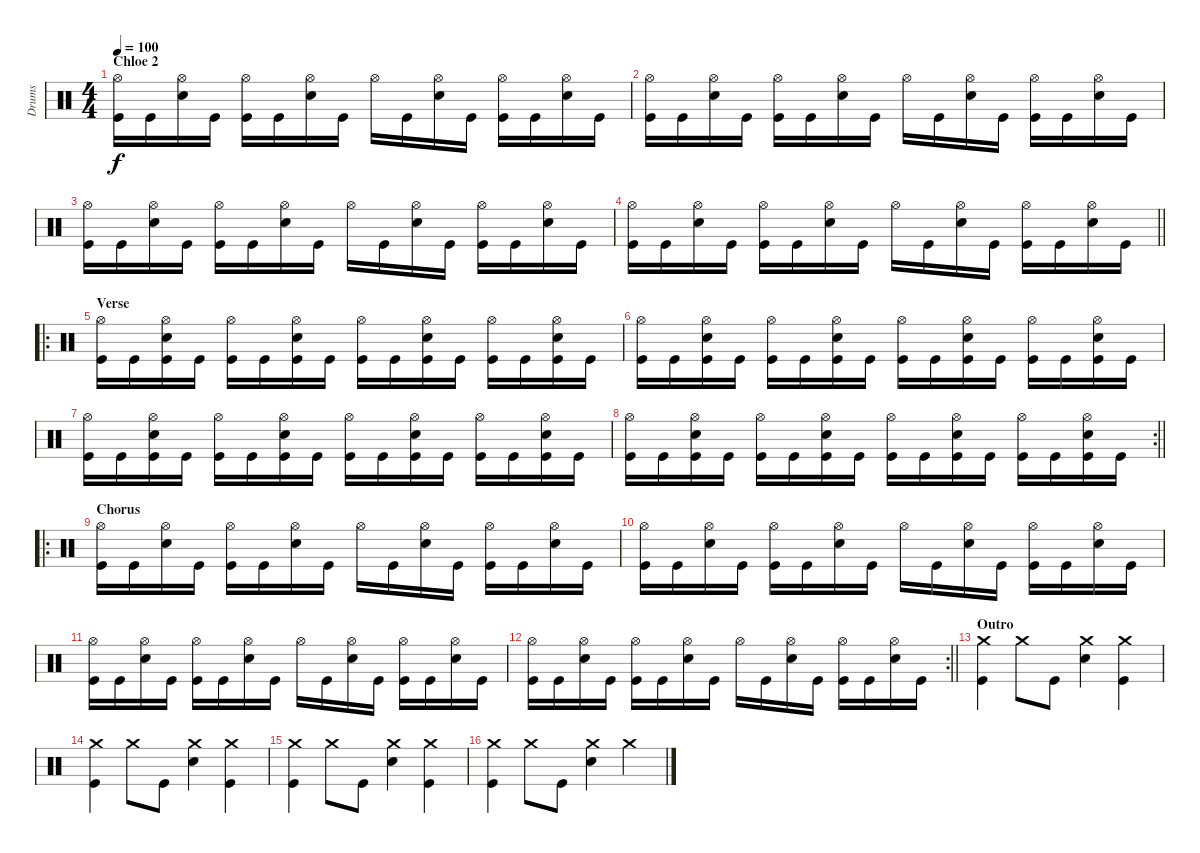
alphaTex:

\track ("Drums" "Drums") {instrument percussion}
\staff {score}
\articulation defaults
\ts (4 4)
\section ("" "Chloe 2")
\tempo 100
\clef neutral
\ks c
("Hi-Hat (open)" "Kick (hit)").16{dy f} "Kick (hit)".16 ("Hi-Hat (open)" "Snare (hit) 2").16 "Kick (hit)".16 ("Hi-Hat (open)" "Kick (hit)").16 "Kick (hit)".16 ("Hi-Hat (open)" "Snare (hit) 2").16 "Kick (hit)".16 "Hi-Hat (open)".16 "Kick (hit)".16 ("Hi-Hat (open)" "Snare (hit) 2").16 "Kick (hit)".16 ("Hi-Hat (open)" "Kick (hit)").16 "Kick (hit)".16 ("Hi-Hat (open)" "Snare (hit) 2").16 "Kick (hit)".16 |
("Hi-Hat (open)" "Kick (hit)").16 "Kick (hit)".16 ("Hi-Hat (open)" "Snare (hit) 2").16 "Kick (hit)".16 ("Hi-Hat (open)" "Kick (hit)").16 "Kick (hit)".16 ("Hi-Hat (open)" "Snare (hit) 2").16 "Kick (hit)".16 "Hi-Hat (open)".16 "Kick (hit)".16 ("Hi-Hat (open)" "Snare (hit) 2").16 "Kick (hit)".16 ("Hi-Hat (open)" "Kick (hit)").16 "Kick (hit)".16 ("Hi-Hat (open)" "Snare (hit) 2").16 "Kick (hit)".16 |
("Hi-Hat (open)" "Kick (hit)").16 "Kick (hit)".16 ("Hi-Hat (open)" "Snare (hit) 2").16 "Kick (hit)".16 ("Hi-Hat (open)" "Kick (hit)").16 "Kick (hit)".16 ("Hi-Hat (open)" "Snare (hit) 2").16 "Kick (hit)".16 "Hi-Hat (open)".16 "Kick (hit)".16 ("Hi-Hat (open)" "Snare (hit) 2").16 "Kick (hit)".16 ("Hi-Hat (open)" "Kick (hit)").16 "Kick (hit)".16 ("Hi-Hat (open)" "Snare (hit) 2").16 "Kick (hit)".16 |
\barLineRight lightlight
("Hi-Hat (open)" "Kick (hit)").16 "Kick (hit)".16 ("Hi-Hat (open)" "Snare (hit) 2").16 "Kick (hit)".16 ("Hi-Hat (open)" "Kick (hit)").16 "Kick (hit)".16 ("Hi-Hat (open)" "Snare (hit) 2").16 "Kick (hit)".16 "Hi-Hat (open)".16 "Kick (hit)".16 ("Hi-Hat (open)" "Snare (hit) 2").16 "Kick (hit)".16 ("Hi-Hat (open)" "Kick (hit)").16 "Kick (hit)".16 ("Hi-Hat (open)" "Snare (hit) 2").16 "Kick (hit)".16 |
\ro
\section ("" "Verse")
("Hi-Hat (open)" "Kick (hit)").16 "Kick (hit)".16 ("Hi-Hat (open)" "Snare (hit) 2" "Kick (hit)").16 "Kick (hit)".16 ("Hi-Hat (open)" "Kick (hit)").16 "Kick (hit)".16 ("Hi-Hat (open)" "Snare (hit) 2" "Kick (hit)").16 "Kick (hit)".16 ("Hi-Hat (open)" "Kick (hit)").16 "Kick (hit)".16 ("Hi-Hat (open)" "Snare (hit) 2" "Kick (hit)").16 "Kick (hit)".16 ("Hi-Hat (open)" "Kick (hit)").16 "Kick (hit)".16 ("Hi-Hat (open)" "Snare (hit) 2" "Kick (hit)").16 "Kick (hit)".16 |
("Hi-Hat (open)" "Kick (hit)").16 "Kick (hit)".16 ("Hi-Hat (open)" "Snare (hit) 2" "Kick (hit)").16 "Kick (hit)".16 ("Hi-Hat (open)" "Kick (hit)").16 "Kick (hit)".16 ("Hi-Hat (open)" "Snare (hit) 2" "Kick (hit)").16 "Kick (hit)".16 ("Hi-Hat (open)" "Kick (hit)").16 "Kick (hit)".16 ("Hi-Hat (open)" "Snare (hit) 2" "Kick (hit)").16 "Kick (hit)".16 ("Hi-Hat (open)" "Kick (hit)").16 "Kick (hit)".16 ("Hi-Hat (open)" "Snare (hit) 2" "Kick (hit)").16 "Kick (hit)".16 |
("Hi-Hat (open)" "Kick (hit)").16 "Kick (hit)".16 ("Hi-Hat (open)" "Snare (hit) 2" "Kick (hit)").16 "Kick (hit)".16 ("Hi-Hat (open)" "Kick (hit)").16 "Kick (hit)".16 ("Hi-Hat (open)" "Snare (hit) 2" "Kick (hit)").16 "Kick (hit)".16 ("Hi-Hat (open)" "Kick (hit)").16 "Kick (hit)".16 ("Hi-Hat (open)" "Snare (hit) 2" "Kick (hit)").16 "Kick (hit)".16 ("Hi-Hat (open)" "Kick (hit)").16 "Kick (hit)".16 ("Hi-Hat (open)" "Snare (hit) 2" "Kick (hit)").16 "Kick (hit)".16 |
\rc 2
\barLineRight lightlight
("Hi-Hat (open)" "Kick (hit)").16 "Kick (hit)".16 ("Hi-Hat (open)" "Snare (hit) 2" "Kick (hit)").16 "Kick (hit)".16 ("Hi-Hat (open)" "Kick (hit)").16 "Kick (hit)".16 ("Hi-Hat (open)" "Snare (hit) 2" "Kick (hit)").16 "Kick (hit)".16 ("Hi-Hat (open)" "Kick (hit)").16 "Kick (hit)".16 ("Hi-Hat (open)" "Snare (hit) 2" "Kick (hit)").16 "Kick (hit)".16 ("Hi-Hat (open)" "Kick (hit)").16 "Kick (hit)".16 ("Hi-Hat (open)" "Snare (hit) 2" "Kick (hit)").16 "Kick (hit)".16 |
\ro
\section ("" "Chorus")
("Hi-Hat (open)" "Kick (hit)").16 "Kick (hit)".16 ("Hi-Hat (open)" "Snare (hit) 2").16 "Kick (hit)".16 ("Hi-Hat (open)" "Kick (hit)").16 "Kick (hit)".16 ("Hi-Hat (open)" "Snare (hit) 2").16 "Kick (hit)".16 "Hi-Hat (open)".16 "Kick (hit)".16 ("Hi-Hat (open)" "Snare (hit) 2").16 "Kick (hit)".16 ("Hi-Hat (open)" "Kick (hit)").16 "Kick (hit)".16 ("Hi-Hat (open)" "Snare (hit) 2").16 "Kick (hit)".16 |
("Hi-Hat (open)" "Kick (hit)").16 "Kick (hit)".16 ("Hi-Hat (open)" "Snare (hit) 2").16 "Kick (hit)".16 ("Hi-Hat (open)" "Kick (hit)").16 "Kick (hit)".16 ("Hi-Hat (open)" "Snare (hit) 2").16 "Kick (hit)".16 "Hi-Hat (open)".16 "Kick (hit)".16 ("Hi-Hat (open)" "Snare (hit) 2").16 "Kick (hit)".16 ("Hi-Hat (open)" "Kick (hit)").16 "Kick (hit)".16 ("Hi-Hat (open)" "Snare (hit) 2").16 "Kick (hit)".16 |
("Hi-Hat (open)" "Kick (hit)").16 "Kick (hit)".16 ("Hi-Hat (open)" "Snare (hit) 2").16 "Kick (hit)".16 ("Hi-Hat (open)" "Kick (hit)").16 "Kick (hit)".16 ("Hi-Hat (open)" "Snare (hit) 2").16 "Kick (hit)".16 "Hi-Hat (open)".16 "Kick (hit)".16 ("Hi-Hat (open)" "Snare (hit) 2").16 "Kick (hit)".16 ("Hi-Hat (open)" "Kick (hit)").16 "Kick (hit)".16 ("Hi-Hat (open)" "Snare (hit) 2").16 "Kick (hit)".16 |
\rc 2
\barLineRight lightlight
("Hi-Hat (open)" "Kick (hit)").16 "Kick (hit)".16 ("Hi-Hat (open)" "Snare (hit) 2").16 "Kick (hit)".16 ("Hi-Hat (open)" "Kick (hit)").16 "Kick (hit)".16 ("Hi-Hat (open)" "Snare (hit) 2").16 "Kick (hit)".16 "Hi-Hat (open)".16 "Kick (hit)".16 ("Hi-Hat (open)" "Snare (hit) 2").16 "Kick (hit)".16 ("Hi-Hat (open)" "Kick (hit)").16 "Kick (hit)".16 ("Hi-Hat (open)" "Snare (hit) 2").16 "Kick (hit)".16 |
\section ("" "Outro")
("Crash medium (hit)" "Kick (hit)").4 "Crash medium (hit)".8 "Kick (hit)".8 ("Crash medium (hit)" "Snare (hit) 2").4 ("Crash medium (hit)" "Kick (hit)").4 |
("Crash medium (hit)" "Kick (hit)").4 "Crash medium (hit)".8 "Kick (hit)".8 ("Crash medium (hit)" "Snare (hit) 2").4 ("Crash medium (hit)" "Kick (hit)").4 |
("Crash medium (hit)" "Kick (hit)").4 "Crash medium (hit)".8 "Kick (hit)".8 ("Crash medium (hit)" "Snare (hit) 2").4 ("Crash medium (hit)" "Kick (hit)").4 |
("Crash medium (hit)" "Kick (hit)").4 "Crash medium (hit)".8 "Kick (hit)".8 ("Crash medium (hit)" "Snare (hit) 2").4 "Crash medium (hit)".4
